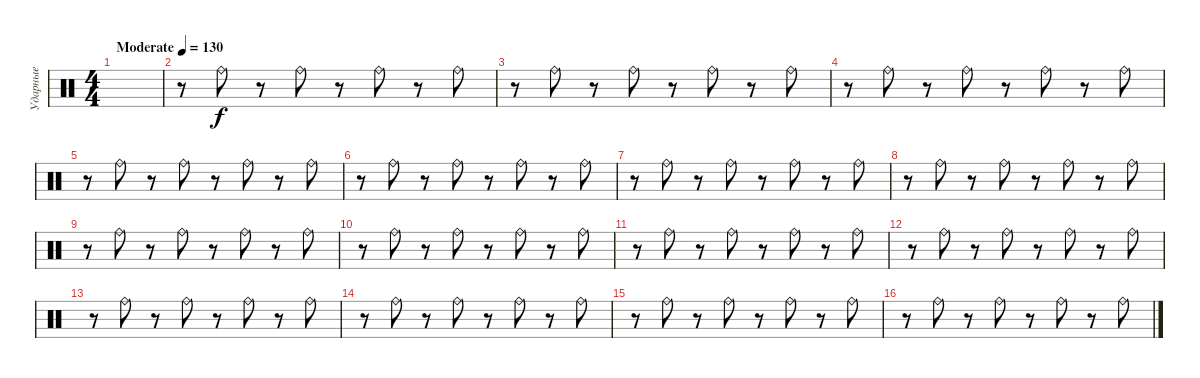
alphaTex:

\track ("Ударные" "Ударные") {instrument percussion}
\staff {score}
\articulation defaults
\ts (4 4)
\tempo (130 "Moderate")
\clef neutral
\ks c
|
r.8 "Ride (bell)".8 r.8 "Ride (bell)".8 r.8 "Ride (bell)".8 r.8 "Ride (bell)".8 |
r.8 "Ride (bell)".8 r.8 "Ride (bell)".8 r.8 "Ride (bell)".8 r.8 "Ride (bell)".8 |
r.8 "Ride (bell)".8 r.8 "Ride (bell)".8 r.8 "Ride (bell)".8 r.8 "Ride (bell)".8 |
r.8 "Ride (bell)".8 r.8 "Ride (bell)".8 r.8 "Ride (bell)".8 r.8 "Ride (bell)".8 |
r.8 "Ride (bell)".8 r.8 "Ride (bell)".8 r.8 "Ride (bell)".8 r.8 "Ride (bell)".8 |
r.8 "Ride (bell)".8 r.8 "Ride (bell)".8 r.8 "Ride (bell)".8 r.8 "Ride (bell)".8 |
r.8 "Ride (bell)".8 r.8 "Ride (bell)".8 r.8 "Ride (bell)".8 r.8 "Ride (bell)".8 |
r.8 "Ride (bell)".8 r.8 "Ride (bell)".8 r.8 "Ride (bell)".8 r.8 "Ride (bell)".8 |
r.8 "Ride (bell)".8 r.8 "Ride (bell)".8 r.8 "Ride (bell)".8 r.8 "Ride (bell)".8 |
r.8 "Ride (bell)".8 r.8 "Ride (bell)".8 r.8 "Ride (bell)".8 r.8 "Ride (bell)".8 |
r.8 "Ride (bell)".8 r.8 "Ride (bell)".8 r.8 "Ride (bell)".8 r.8 "Ride (bell)".8 |
r.8 "Ride (bell)".8 r.8 "Ride (bell)".8 r.8 "Ride (bell)".8 r.8 "Ride (bell)".8 |
r.8 "Ride (bell)".8 r.8 "Ride (bell)".8 r.8 "Ride (bell)".8 r.8 "Ride (bell)".8 |
r.8 "Ride (bell)".8 r.8 "Ride (bell)".8 r.8 "Ride (bell)".8 r.8 "Ride (bell)".8 |
r.8 "Ride (bell)".8 r.8 "Ride (bell)".8 r.8 "Ride (bell)".8 r.8 "Ride (bell)".8
